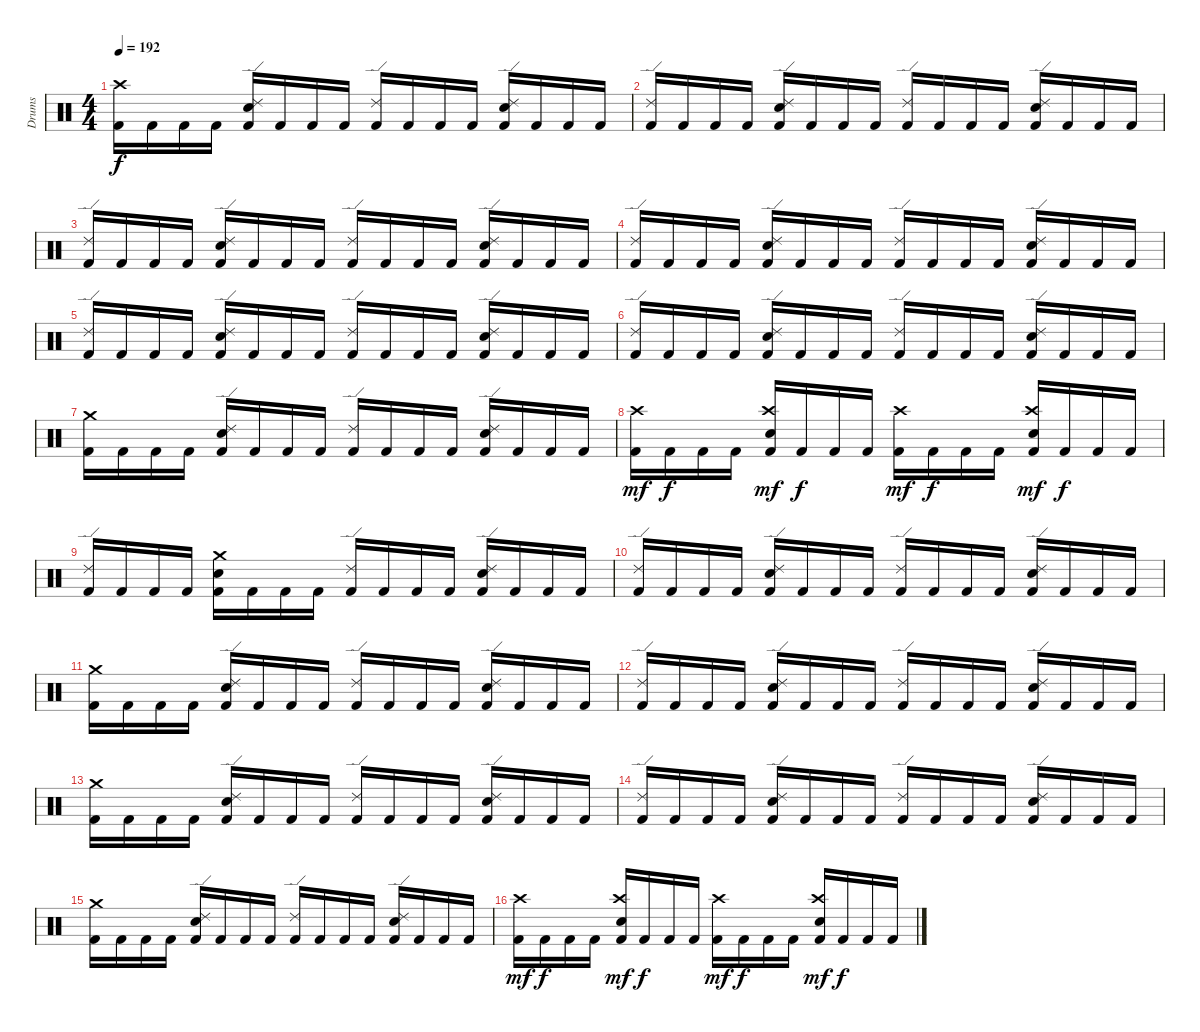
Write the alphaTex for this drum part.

\track ("Drums" "Drums") {instrument percussion}
\staff {score}
\articulation defaults
\ts (4 4)
\section ("" "")
\tempo 192
\clef neutral
\ks c
("Kick (hit) 2" "Crash high (hit)").16{dy f} "Kick (hit) 2".16 "Kick (hit) 2".16 "Kick (hit) 2".16 ("Kick (hit) 2" "Electric Snare (hit)" "Ride (edge) 2").16 "Kick (hit) 2".16 "Kick (hit) 2".16 "Kick (hit) 2".16 ("Kick (hit) 2" "Ride (edge) 2").16 "Kick (hit) 2".16 "Kick (hit) 2".16 "Kick (hit) 2".16 ("Kick (hit) 2" "Electric Snare (hit)" "Ride (edge) 2").16 "Kick (hit) 2".16 "Kick (hit) 2".16 "Kick (hit) 2".16 |
("Kick (hit) 2" "Ride (edge) 2").16 "Kick (hit) 2".16 "Kick (hit) 2".16 "Kick (hit) 2".16 ("Kick (hit) 2" "Electric Snare (hit)" "Ride (edge) 2").16 "Kick (hit) 2".16 "Kick (hit) 2".16 "Kick (hit) 2".16 ("Kick (hit) 2" "Ride (edge) 2").16 "Kick (hit) 2".16 "Kick (hit) 2".16 "Kick (hit) 2".16 ("Kick (hit) 2" "Electric Snare (hit)" "Ride (edge) 2").16 "Kick (hit) 2".16 "Kick (hit) 2".16 "Kick (hit) 2".16 |
("Kick (hit) 2" "Ride (edge) 2").16 "Kick (hit) 2".16 "Kick (hit) 2".16 "Kick (hit) 2".16 ("Kick (hit) 2" "Electric Snare (hit)" "Ride (edge) 2").16 "Kick (hit) 2".16 "Kick (hit) 2".16 "Kick (hit) 2".16 ("Kick (hit) 2" "Ride (edge) 2").16 "Kick (hit) 2".16 "Kick (hit) 2".16 "Kick (hit) 2".16 ("Kick (hit) 2" "Electric Snare (hit)" "Ride (edge) 2").16 "Kick (hit) 2".16 "Kick (hit) 2".16 "Kick (hit) 2".16 |
("Kick (hit) 2" "Ride (edge) 2").16 "Kick (hit) 2".16 "Kick (hit) 2".16 "Kick (hit) 2".16 ("Kick (hit) 2" "Electric Snare (hit)" "Ride (edge) 2").16 "Kick (hit) 2".16 "Kick (hit) 2".16 "Kick (hit) 2".16 ("Kick (hit) 2" "Ride (edge) 2").16 "Kick (hit) 2".16 "Kick (hit) 2".16 "Kick (hit) 2".16 ("Kick (hit) 2" "Electric Snare (hit)" "Ride (edge) 2").16 "Kick (hit) 2".16 "Kick (hit) 2".16 "Kick (hit) 2".16 |
("Kick (hit) 2" "Ride (edge) 2").16 "Kick (hit) 2".16 "Kick (hit) 2".16 "Kick (hit) 2".16 ("Kick (hit) 2" "Electric Snare (hit)" "Ride (edge) 2").16 "Kick (hit) 2".16 "Kick (hit) 2".16 "Kick (hit) 2".16 ("Kick (hit) 2" "Ride (edge) 2").16 "Kick (hit) 2".16 "Kick (hit) 2".16 "Kick (hit) 2".16 ("Kick (hit) 2" "Electric Snare (hit)" "Ride (edge) 2").16 "Kick (hit) 2".16 "Kick (hit) 2".16 "Kick (hit) 2".16 |
("Kick (hit) 2" "Ride (edge) 2").16 "Kick (hit) 2".16 "Kick (hit) 2".16 "Kick (hit) 2".16 ("Kick (hit) 2" "Electric Snare (hit)" "Ride (edge) 2").16 "Kick (hit) 2".16 "Kick (hit) 2".16 "Kick (hit) 2".16 ("Kick (hit) 2" "Ride (edge) 2").16 "Kick (hit) 2".16 "Kick (hit) 2".16 "Kick (hit) 2".16 ("Kick (hit) 2" "Electric Snare (hit)" "Ride (edge) 2").16 "Kick (hit) 2".16 "Kick (hit) 2".16 "Kick (hit) 2".16 |
("Kick (hit) 2" "Crash medium (hit)").16 "Kick (hit) 2".16 "Kick (hit) 2".16 "Kick (hit) 2".16 ("Kick (hit) 2" "Electric Snare (hit)" "Ride (edge) 2").16 "Kick (hit) 2".16 "Kick (hit) 2".16 "Kick (hit) 2".16 ("Kick (hit) 2" "Ride (edge) 2").16 "Kick (hit) 2".16 "Kick (hit) 2".16 "Kick (hit) 2".16 ("Kick (hit) 2" "Electric Snare (hit)" "Ride (edge) 2").16 "Kick (hit) 2".16 "Kick (hit) 2".16 "Kick (hit) 2".16 |
("Kick (hit) 2" "Crash high (hit)").16{dy mf} "Kick (hit) 2".16{dy f} "Kick (hit) 2".16 "Kick (hit) 2".16 ("Kick (hit) 2" "Electric Snare (hit)" "Crash high (hit)").16{dy mf} "Kick (hit) 2".16{dy f} "Kick (hit) 2".16 "Kick (hit) 2".16 ("Kick (hit) 2" "Crash high (hit)").16{dy mf} "Kick (hit) 2".16{dy f} "Kick (hit) 2".16 "Kick (hit) 2".16 ("Kick (hit) 2" "Electric Snare (hit)" "Crash high (hit)").16{dy mf} "Kick (hit) 2".16{dy f} "Kick (hit) 2".16 "Kick (hit) 2".16 |
\section ("" "")
("Kick (hit) 2" "Ride (edge) 2").16 "Kick (hit) 2".16 "Kick (hit) 2".16 "Kick (hit) 2".16 ("Kick (hit) 2" "Electric Snare (hit)" "Crash medium (hit)").16 "Kick (hit) 2".16 "Kick (hit) 2".16 "Kick (hit) 2".16 ("Kick (hit) 2" "Ride (edge) 2").16 "Kick (hit) 2".16 "Kick (hit) 2".16 "Kick (hit) 2".16 ("Kick (hit) 2" "Electric Snare (hit)" "Ride (edge) 2").16 "Kick (hit) 2".16 "Kick (hit) 2".16 "Kick (hit) 2".16 |
("Kick (hit) 2" "Ride (edge) 2").16 "Kick (hit) 2".16 "Kick (hit) 2".16 "Kick (hit) 2".16 ("Kick (hit) 2" "Electric Snare (hit)" "Ride (edge) 2").16 "Kick (hit) 2".16 "Kick (hit) 2".16 "Kick (hit) 2".16 ("Kick (hit) 2" "Ride (edge) 2").16 "Kick (hit) 2".16 "Kick (hit) 2".16 "Kick (hit) 2".16 ("Kick (hit) 2" "Electric Snare (hit)" "Ride (edge) 2").16 "Kick (hit) 2".16 "Kick (hit) 2".16 "Kick (hit) 2".16 |
("Kick (hit) 2" "Crash medium (hit)").16 "Kick (hit) 2".16 "Kick (hit) 2".16 "Kick (hit) 2".16 ("Kick (hit) 2" "Electric Snare (hit)" "Ride (edge) 2").16 "Kick (hit) 2".16 "Kick (hit) 2".16 "Kick (hit) 2".16 ("Kick (hit) 2" "Ride (edge) 2").16 "Kick (hit) 2".16 "Kick (hit) 2".16 "Kick (hit) 2".16 ("Kick (hit) 2" "Electric Snare (hit)" "Ride (edge) 2").16 "Kick (hit) 2".16 "Kick (hit) 2".16 "Kick (hit) 2".16 |
("Kick (hit) 2" "Ride (edge) 2").16 "Kick (hit) 2".16 "Kick (hit) 2".16 "Kick (hit) 2".16 ("Kick (hit) 2" "Electric Snare (hit)" "Ride (edge) 2").16 "Kick (hit) 2".16 "Kick (hit) 2".16 "Kick (hit) 2".16 ("Kick (hit) 2" "Ride (edge) 2").16 "Kick (hit) 2".16 "Kick (hit) 2".16 "Kick (hit) 2".16 ("Kick (hit) 2" "Electric Snare (hit)" "Ride (edge) 2").16 "Kick (hit) 2".16 "Kick (hit) 2".16 "Kick (hit) 2".16 |
("Kick (hit) 2" "Crash medium (hit)").16 "Kick (hit) 2".16 "Kick (hit) 2".16 "Kick (hit) 2".16 ("Kick (hit) 2" "Electric Snare (hit)" "Ride (edge) 2").16 "Kick (hit) 2".16 "Kick (hit) 2".16 "Kick (hit) 2".16 ("Kick (hit) 2" "Ride (edge) 2").16 "Kick (hit) 2".16 "Kick (hit) 2".16 "Kick (hit) 2".16 ("Kick (hit) 2" "Electric Snare (hit)" "Ride (edge) 2").16 "Kick (hit) 2".16 "Kick (hit) 2".16 "Kick (hit) 2".16 |
("Kick (hit) 2" "Ride (edge) 2").16 "Kick (hit) 2".16 "Kick (hit) 2".16 "Kick (hit) 2".16 ("Kick (hit) 2" "Electric Snare (hit)" "Ride (edge) 2").16 "Kick (hit) 2".16 "Kick (hit) 2".16 "Kick (hit) 2".16 ("Kick (hit) 2" "Ride (edge) 2").16 "Kick (hit) 2".16 "Kick (hit) 2".16 "Kick (hit) 2".16 ("Kick (hit) 2" "Electric Snare (hit)" "Ride (edge) 2").16 "Kick (hit) 2".16 "Kick (hit) 2".16 "Kick (hit) 2".16 |
("Kick (hit) 2" "Crash medium (hit)").16 "Kick (hit) 2".16 "Kick (hit) 2".16 "Kick (hit) 2".16 ("Kick (hit) 2" "Electric Snare (hit)" "Ride (edge) 2").16 "Kick (hit) 2".16 "Kick (hit) 2".16 "Kick (hit) 2".16 ("Kick (hit) 2" "Ride (edge) 2").16 "Kick (hit) 2".16 "Kick (hit) 2".16 "Kick (hit) 2".16 ("Kick (hit) 2" "Electric Snare (hit)" "Ride (edge) 2").16 "Kick (hit) 2".16 "Kick (hit) 2".16 "Kick (hit) 2".16 |
("Kick (hit) 2" "Crash high (hit)").16{dy mf} "Kick (hit) 2".16{dy f} "Kick (hit) 2".16 "Kick (hit) 2".16 ("Kick (hit) 2" "Electric Snare (hit)" "Crash high (hit)").16{dy mf} "Kick (hit) 2".16{dy f} "Kick (hit) 2".16 "Kick (hit) 2".16 ("Kick (hit) 2" "Crash high (hit)").16{dy mf} "Kick (hit) 2".16{dy f} "Kick (hit) 2".16 "Kick (hit) 2".16 ("Kick (hit) 2" "Electric Snare (hit)" "Crash high (hit)").16{dy mf} "Kick (hit) 2".16{dy f} "Kick (hit) 2".16 "Kick (hit) 2".16
